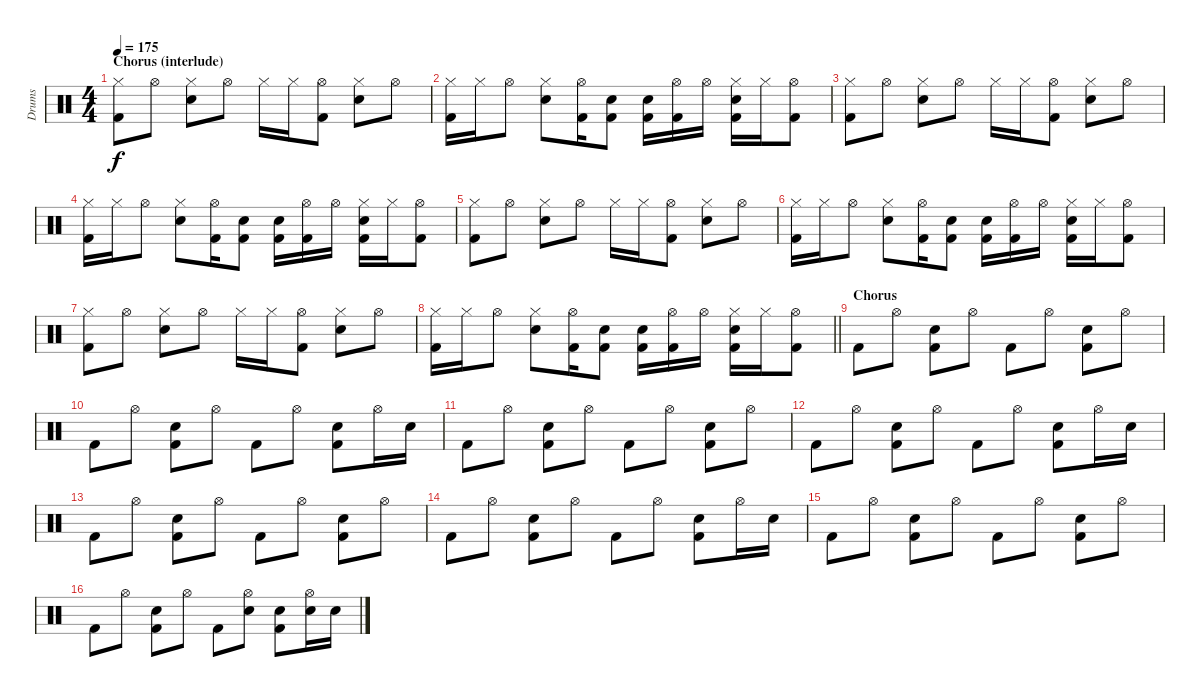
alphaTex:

\track ("Drums" "Drums") {instrument percussion}
\staff {score}
\articulation defaults
\ts (4 4)
\section ("" "Chorus (interlude)")
\tempo 175
\clef neutral
\ks c
("Kick (hit) 2" "Hi-Hat (closed)").8{dy f} "Hi-Hat (open)".8 ("Snare (hit) 2" "Hi-Hat (closed)").8 "Hi-Hat (open)".8 "Hi-Hat (closed)".16 "Hi-Hat (closed)".16 ("Kick (hit) 2" "Hi-Hat (open)").8 ("Snare (hit) 2" "Hi-Hat (closed)").8 "Hi-Hat (open)".8 |
("Kick (hit) 2" "Hi-Hat (closed)").16 "Hi-Hat (closed)".16 "Hi-Hat (open)".8 ("Snare (hit) 2" "Hi-Hat (closed)").8 ("Kick (hit) 2" "Hi-Hat (open)").16 ("Kick (hit) 2" "Snare (hit) 2").8 ("Kick (hit) 2" "Snare (hit) 2").16 ("Kick (hit) 2" "Hi-Hat (open)").16 "Hi-Hat (open)".16 ("Kick (hit) 2" "Snare (hit) 2" "Hi-Hat (closed)").16 "Hi-Hat (closed)".16 ("Kick (hit) 2" "Hi-Hat (open)").8 |
("Kick (hit) 2" "Hi-Hat (closed)").8 "Hi-Hat (open)".8 ("Snare (hit) 2" "Hi-Hat (closed)").8 "Hi-Hat (open)".8 "Hi-Hat (closed)".16 "Hi-Hat (closed)".16 ("Kick (hit) 2" "Hi-Hat (open)").8 ("Snare (hit) 2" "Hi-Hat (closed)").8 "Hi-Hat (open)".8 |
("Kick (hit) 2" "Hi-Hat (closed)").16 "Hi-Hat (closed)".16 "Hi-Hat (open)".8 ("Snare (hit) 2" "Hi-Hat (closed)").8 ("Kick (hit) 2" "Hi-Hat (open)").16 ("Kick (hit) 2" "Snare (hit) 2").8 ("Kick (hit) 2" "Snare (hit) 2").16 ("Kick (hit) 2" "Hi-Hat (open)").16 "Hi-Hat (open)".16 ("Kick (hit) 2" "Snare (hit) 2" "Hi-Hat (closed)").16 "Hi-Hat (closed)".16 ("Kick (hit) 2" "Hi-Hat (open)").8 |
("Kick (hit) 2" "Hi-Hat (closed)").8 "Hi-Hat (open)".8 ("Snare (hit) 2" "Hi-Hat (closed)").8 "Hi-Hat (open)".8 "Hi-Hat (closed)".16 "Hi-Hat (closed)".16 ("Kick (hit) 2" "Hi-Hat (open)").8 ("Snare (hit) 2" "Hi-Hat (closed)").8 "Hi-Hat (open)".8 |
("Kick (hit) 2" "Hi-Hat (closed)").16 "Hi-Hat (closed)".16 "Hi-Hat (open)".8 ("Snare (hit) 2" "Hi-Hat (closed)").8 ("Kick (hit) 2" "Hi-Hat (open)").16 ("Kick (hit) 2" "Snare (hit) 2").8 ("Kick (hit) 2" "Snare (hit) 2").16 ("Kick (hit) 2" "Hi-Hat (open)").16 "Hi-Hat (open)".16 ("Kick (hit) 2" "Snare (hit) 2" "Hi-Hat (closed)").16 "Hi-Hat (closed)".16 ("Kick (hit) 2" "Hi-Hat (open)").8 |
("Kick (hit) 2" "Hi-Hat (closed)").8 "Hi-Hat (open)".8 ("Snare (hit) 2" "Hi-Hat (closed)").8 "Hi-Hat (open)".8 "Hi-Hat (closed)".16 "Hi-Hat (closed)".16 ("Kick (hit) 2" "Hi-Hat (open)").8 ("Snare (hit) 2" "Hi-Hat (closed)").8 "Hi-Hat (open)".8 |
\barLineRight lightlight
("Kick (hit) 2" "Hi-Hat (closed)").16 "Hi-Hat (closed)".16 "Hi-Hat (open)".8 ("Snare (hit) 2" "Hi-Hat (closed)").8 ("Kick (hit) 2" "Hi-Hat (open)").16 ("Kick (hit) 2" "Snare (hit) 2").8 ("Kick (hit) 2" "Snare (hit) 2").16 ("Kick (hit) 2" "Hi-Hat (open)").16 "Hi-Hat (open)".16 ("Kick (hit) 2" "Snare (hit) 2" "Hi-Hat (closed)").16 "Hi-Hat (closed)".16 ("Kick (hit) 2" "Hi-Hat (open)").8 |
\section ("" "Chorus")
"Kick (hit) 2".8 "Hi-Hat (open)".8 ("Kick (hit) 2" "Snare (hit) 2").8 "Hi-Hat (open)".8 "Kick (hit) 2".8 "Hi-Hat (open)".8 ("Kick (hit) 2" "Snare (hit) 2").8 "Hi-Hat (open)".8 |
"Kick (hit) 2".8 "Hi-Hat (open)".8 ("Kick (hit) 2" "Snare (hit) 2").8 "Hi-Hat (open)".8 "Kick (hit) 2".8 "Hi-Hat (open)".8 ("Kick (hit) 2" "Snare (hit) 2").8 "Hi-Hat (open)".16 "Snare (hit) 2".16 |
"Kick (hit) 2".8 "Hi-Hat (open)".8 ("Kick (hit) 2" "Snare (hit) 2").8 "Hi-Hat (open)".8 "Kick (hit) 2".8 "Hi-Hat (open)".8 ("Kick (hit) 2" "Snare (hit) 2").8 "Hi-Hat (open)".8 |
"Kick (hit) 2".8 "Hi-Hat (open)".8 ("Kick (hit) 2" "Snare (hit) 2").8 "Hi-Hat (open)".8 "Kick (hit) 2".8 "Hi-Hat (open)".8 ("Kick (hit) 2" "Snare (hit) 2").8 "Hi-Hat (open)".16 "Snare (hit) 2".16 |
"Kick (hit) 2".8 "Hi-Hat (open)".8 ("Kick (hit) 2" "Snare (hit) 2").8 "Hi-Hat (open)".8 "Kick (hit) 2".8 "Hi-Hat (open)".8 ("Kick (hit) 2" "Snare (hit) 2").8 "Hi-Hat (open)".8 |
"Kick (hit) 2".8 "Hi-Hat (open)".8 ("Kick (hit) 2" "Snare (hit) 2").8 "Hi-Hat (open)".8 "Kick (hit) 2".8 "Hi-Hat (open)".8 ("Kick (hit) 2" "Snare (hit) 2").8 "Hi-Hat (open)".16 "Snare (hit) 2".16 |
"Kick (hit) 2".8 "Hi-Hat (open)".8 ("Kick (hit) 2" "Snare (hit) 2").8 "Hi-Hat (open)".8 "Kick (hit) 2".8 "Hi-Hat (open)".8 ("Kick (hit) 2" "Snare (hit) 2").8 "Hi-Hat (open)".8 |
"Kick (hit) 2".8 "Hi-Hat (open)".8 ("Kick (hit) 2" "Snare (hit) 2").8 "Hi-Hat (open)".8 "Kick (hit) 2".8 ("Hi-Hat (open)" "Snare (hit) 2").8 ("Kick (hit) 2" "Snare (hit) 2").8 ("Hi-Hat (open)" "Snare (hit) 2").16 "Snare (hit) 2".16
